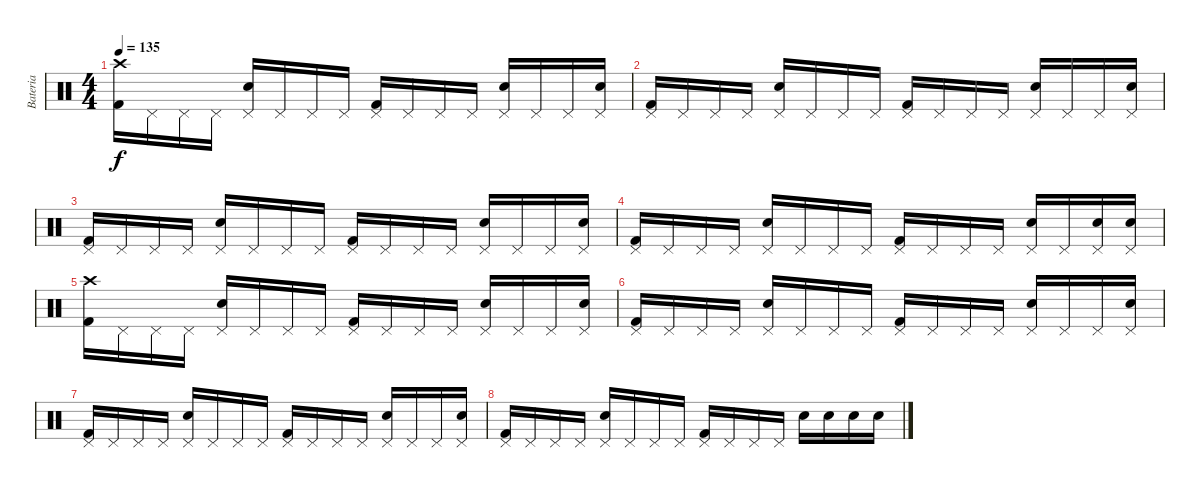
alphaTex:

\track ("Bateria" "Bateria") {instrument percussion}
\staff {score}
\articulation defaults
\ts (4 4)
\tempo 135
\clef neutral
\ks c
("Crash high (hit)" "Kick (hit) 2").16{dy f} "Pedal Hi-Hat (hit)".16 "Pedal Hi-Hat (hit)".16 "Pedal Hi-Hat (hit)".16 ("Pedal Hi-Hat (hit)" "Electric Snare (hit)").16 "Pedal Hi-Hat (hit)".16 "Pedal Hi-Hat (hit)".16 "Pedal Hi-Hat (hit)".16 ("Pedal Hi-Hat (hit)" "Kick (hit) 2").16 "Pedal Hi-Hat (hit)".16 "Pedal Hi-Hat (hit)".16 "Pedal Hi-Hat (hit)".16 ("Pedal Hi-Hat (hit)" "Electric Snare (hit)").16 "Pedal Hi-Hat (hit)".16 "Pedal Hi-Hat (hit)".16 ("Pedal Hi-Hat (hit)" "Electric Snare (hit)").16 |
("Pedal Hi-Hat (hit)" "Kick (hit) 2").16 "Pedal Hi-Hat (hit)".16 "Pedal Hi-Hat (hit)".16 "Pedal Hi-Hat (hit)".16 ("Pedal Hi-Hat (hit)" "Electric Snare (hit)").16 "Pedal Hi-Hat (hit)".16 "Pedal Hi-Hat (hit)".16 "Pedal Hi-Hat (hit)".16 ("Pedal Hi-Hat (hit)" "Kick (hit) 2").16 "Pedal Hi-Hat (hit)".16 "Pedal Hi-Hat (hit)".16 "Pedal Hi-Hat (hit)".16 ("Pedal Hi-Hat (hit)" "Electric Snare (hit)").16 "Pedal Hi-Hat (hit)".16 "Pedal Hi-Hat (hit)".16 ("Pedal Hi-Hat (hit)" "Electric Snare (hit)").16 |
("Pedal Hi-Hat (hit)" "Kick (hit) 2").16 "Pedal Hi-Hat (hit)".16 "Pedal Hi-Hat (hit)".16 "Pedal Hi-Hat (hit)".16 ("Pedal Hi-Hat (hit)" "Electric Snare (hit)").16 "Pedal Hi-Hat (hit)".16 "Pedal Hi-Hat (hit)".16 "Pedal Hi-Hat (hit)".16 ("Pedal Hi-Hat (hit)" "Kick (hit) 2").16 "Pedal Hi-Hat (hit)".16 "Pedal Hi-Hat (hit)".16 "Pedal Hi-Hat (hit)".16 ("Pedal Hi-Hat (hit)" "Electric Snare (hit)").16 "Pedal Hi-Hat (hit)".16 "Pedal Hi-Hat (hit)".16 ("Pedal Hi-Hat (hit)" "Electric Snare (hit)").16 |
("Pedal Hi-Hat (hit)" "Kick (hit) 2").16 "Pedal Hi-Hat (hit)".16 "Pedal Hi-Hat (hit)".16 "Pedal Hi-Hat (hit)".16 ("Pedal Hi-Hat (hit)" "Electric Snare (hit)").16 "Pedal Hi-Hat (hit)".16 "Pedal Hi-Hat (hit)".16 "Pedal Hi-Hat (hit)".16 ("Pedal Hi-Hat (hit)" "Kick (hit) 2").16 "Pedal Hi-Hat (hit)".16 "Pedal Hi-Hat (hit)".16 "Pedal Hi-Hat (hit)".16 ("Pedal Hi-Hat (hit)" "Electric Snare (hit)").16 "Pedal Hi-Hat (hit)".16 ("Pedal Hi-Hat (hit)" "Electric Snare (hit)").16 ("Pedal Hi-Hat (hit)" "Electric Snare (hit)").16 |
("Crash high (hit)" "Kick (hit) 2").16 "Pedal Hi-Hat (hit)".16 "Pedal Hi-Hat (hit)".16 "Pedal Hi-Hat (hit)".16 ("Pedal Hi-Hat (hit)" "Electric Snare (hit)").16 "Pedal Hi-Hat (hit)".16 "Pedal Hi-Hat (hit)".16 "Pedal Hi-Hat (hit)".16 ("Pedal Hi-Hat (hit)" "Kick (hit) 2").16 "Pedal Hi-Hat (hit)".16 "Pedal Hi-Hat (hit)".16 "Pedal Hi-Hat (hit)".16 ("Pedal Hi-Hat (hit)" "Electric Snare (hit)").16 "Pedal Hi-Hat (hit)".16 "Pedal Hi-Hat (hit)".16 ("Pedal Hi-Hat (hit)" "Electric Snare (hit)").16 |
("Pedal Hi-Hat (hit)" "Kick (hit) 2").16 "Pedal Hi-Hat (hit)".16 "Pedal Hi-Hat (hit)".16 "Pedal Hi-Hat (hit)".16 ("Pedal Hi-Hat (hit)" "Electric Snare (hit)").16 "Pedal Hi-Hat (hit)".16 "Pedal Hi-Hat (hit)".16 "Pedal Hi-Hat (hit)".16 ("Pedal Hi-Hat (hit)" "Kick (hit) 2").16 "Pedal Hi-Hat (hit)".16 "Pedal Hi-Hat (hit)".16 "Pedal Hi-Hat (hit)".16 ("Pedal Hi-Hat (hit)" "Electric Snare (hit)").16 "Pedal Hi-Hat (hit)".16 "Pedal Hi-Hat (hit)".16 ("Pedal Hi-Hat (hit)" "Electric Snare (hit)").16 |
("Pedal Hi-Hat (hit)" "Kick (hit) 2").16 "Pedal Hi-Hat (hit)".16 "Pedal Hi-Hat (hit)".16 "Pedal Hi-Hat (hit)".16 ("Pedal Hi-Hat (hit)" "Electric Snare (hit)").16 "Pedal Hi-Hat (hit)".16 "Pedal Hi-Hat (hit)".16 "Pedal Hi-Hat (hit)".16 ("Pedal Hi-Hat (hit)" "Kick (hit) 2").16 "Pedal Hi-Hat (hit)".16 "Pedal Hi-Hat (hit)".16 "Pedal Hi-Hat (hit)".16 ("Pedal Hi-Hat (hit)" "Electric Snare (hit)").16 "Pedal Hi-Hat (hit)".16 "Pedal Hi-Hat (hit)".16 ("Pedal Hi-Hat (hit)" "Electric Snare (hit)").16 |
("Pedal Hi-Hat (hit)" "Kick (hit) 2").16 "Pedal Hi-Hat (hit)".16 "Pedal Hi-Hat (hit)".16 "Pedal Hi-Hat (hit)".16 ("Pedal Hi-Hat (hit)" "Electric Snare (hit)").16 "Pedal Hi-Hat (hit)".16 "Pedal Hi-Hat (hit)".16 "Pedal Hi-Hat (hit)".16 ("Pedal Hi-Hat (hit)" "Kick (hit) 2").16 "Pedal Hi-Hat (hit)".16 "Pedal Hi-Hat (hit)".16 "Pedal Hi-Hat (hit)".16 "Electric Snare (hit)".16 "Electric Snare (hit)".16 "Electric Snare (hit)".16 "Electric Snare (hit)".16
